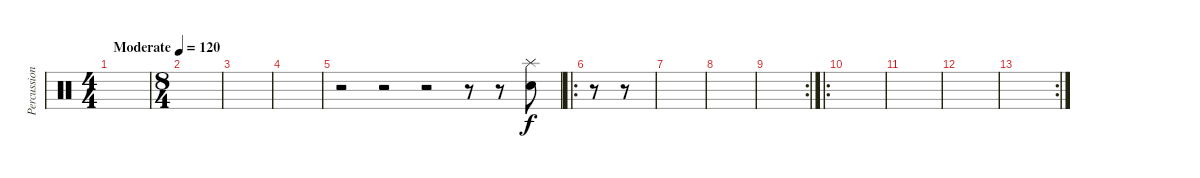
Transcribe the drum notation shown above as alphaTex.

\track ("Percussion" "Percussion") {instrument percussion}
\staff {score}
\articulation defaults
\ts (4 4)
\tempo (120 "Moderate")
\clef neutral
\ks c
|
\ts (8 4)
|
|
|
r.2 r.2 r.2 r.8 r.8 ("Splash (hit)" "Electric Snare (hit)").8 |
\ro
r.8 r.8 |
|
|
\rc 2
|
\ro
|
|
|
\rc 2
